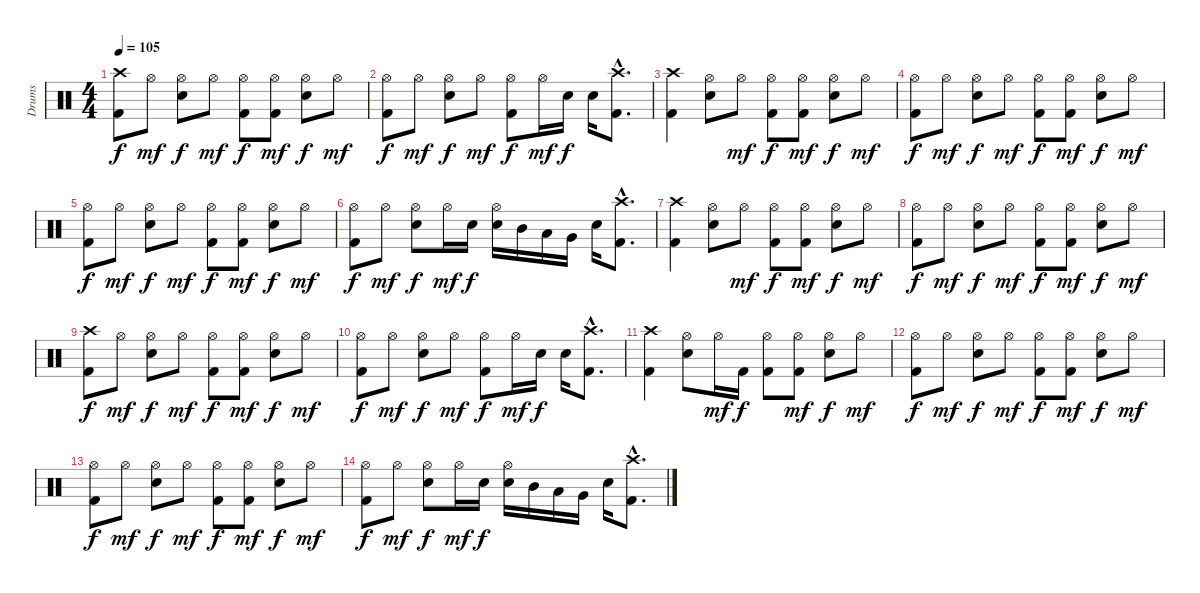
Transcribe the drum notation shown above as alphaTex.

\track ("Drums" "Drums") {instrument percussion}
\staff {score}
\articulation defaults
\ts (4 4)
\tempo 105
\clef neutral
\ks c
("Crash high (hit)" "Kick (hit) 2").8{dy f} "Hi-Hat (open)".8{dy mf} ("Hi-Hat (open)" "Electric Snare (hit)").8{dy f} "Hi-Hat (open)".8{dy mf} ("Hi-Hat (open)" "Kick (hit) 2").8{dy f} ("Hi-Hat (open)" "Kick (hit) 2").8{dy mf} ("Hi-Hat (open)" "Electric Snare (hit)").8{dy f} "Hi-Hat (open)".8{dy mf} |
("Hi-Hat (open)" "Kick (hit) 2").8{dy f} "Hi-Hat (open)".8{dy mf} ("Hi-Hat (open)" "Electric Snare (hit)").8{dy f} "Hi-Hat (open)".8{dy mf} ("Hi-Hat (open)" "Kick (hit) 2").8{dy f} "Hi-Hat (open)".16{dy mf} "Electric Snare (hit)".16{dy f} "Electric Snare (hit)".16 ("Crash high (hit)"{hac} "Kick (hit) 2"{hac}).8{d} |
("Crash high (hit)" "Kick (hit) 2").4 ("Hi-Hat (open)" "Electric Snare (hit)").8 "Hi-Hat (open)".8{dy mf} ("Hi-Hat (open)" "Kick (hit) 2").8{dy f} ("Hi-Hat (open)" "Kick (hit) 2").8{dy mf} ("Hi-Hat (open)" "Electric Snare (hit)").8{dy f} "Hi-Hat (open)".8{dy mf} |
("Hi-Hat (open)" "Kick (hit) 2").8{dy f} "Hi-Hat (open)".8{dy mf} ("Hi-Hat (open)" "Electric Snare (hit)").8{dy f} "Hi-Hat (open)".8{dy mf} ("Hi-Hat (open)" "Kick (hit) 2").8{dy f} ("Hi-Hat (open)" "Kick (hit) 2").8{dy mf} ("Hi-Hat (open)" "Electric Snare (hit)").8{dy f} "Hi-Hat (open)".8{dy mf} |
("Hi-Hat (open)" "Kick (hit) 2").8{dy f} "Hi-Hat (open)".8{dy mf} ("Hi-Hat (open)" "Electric Snare (hit)").8{dy f} "Hi-Hat (open)".8{dy mf} ("Hi-Hat (open)" "Kick (hit) 2").8{dy f} ("Hi-Hat (open)" "Kick (hit) 2").8{dy mf} ("Hi-Hat (open)" "Electric Snare (hit)").8{dy f} "Hi-Hat (open)".8{dy mf} |
("Hi-Hat (open)" "Kick (hit) 2").8{dy f} "Hi-Hat (open)".8{dy mf} ("Hi-Hat (open)" "Electric Snare (hit)").8{dy f} "Hi-Hat (open)".16{dy mf} "Electric Snare (hit)".16{dy f} ("Hi-Hat (open)" "Electric Snare (hit)").16 "Mid Tom (hit)".16 "Low Tom (hit)".16 "Very Low Tom (hit)".16 "Electric Snare (hit)".16 ("Crash high (hit)"{hac} "Kick (hit) 2"{hac}).8{d} |
("Crash high (hit)" "Kick (hit) 2").4{volume 7} ("Hi-Hat (open)" "Electric Snare (hit)").8 "Hi-Hat (open)".8{dy mf} ("Hi-Hat (open)" "Kick (hit) 2").8{dy f} ("Hi-Hat (open)" "Kick (hit) 2").8{dy mf} ("Hi-Hat (open)" "Electric Snare (hit)").8{dy f} "Hi-Hat (open)".8{dy mf} |
("Hi-Hat (open)" "Kick (hit) 2").8{dy f} "Hi-Hat (open)".8{dy mf} ("Hi-Hat (open)" "Electric Snare (hit)").8{dy f} "Hi-Hat (open)".8{dy mf} ("Hi-Hat (open)" "Kick (hit) 2").8{dy f} ("Hi-Hat (open)" "Kick (hit) 2").8{dy mf} ("Hi-Hat (open)" "Electric Snare (hit)").8{dy f} "Hi-Hat (open)".8{dy mf} |
("Crash high (hit)" "Kick (hit) 2").8{dy f} "Hi-Hat (open)".8{dy mf} ("Hi-Hat (open)" "Electric Snare (hit)").8{dy f} "Hi-Hat (open)".8{dy mf} ("Hi-Hat (open)" "Kick (hit) 2").8{dy f} ("Hi-Hat (open)" "Kick (hit) 2").8{dy mf} ("Hi-Hat (open)" "Electric Snare (hit)").8{dy f} "Hi-Hat (open)".8{dy mf} |
("Hi-Hat (open)" "Kick (hit) 2").8{dy f} "Hi-Hat (open)".8{dy mf} ("Hi-Hat (open)" "Electric Snare (hit)").8{dy f} "Hi-Hat (open)".8{dy mf} ("Hi-Hat (open)" "Kick (hit) 2").8{dy f} "Hi-Hat (open)".16{dy mf} "Electric Snare (hit)".16{dy f} "Electric Snare (hit)".16 ("Crash high (hit)"{hac} "Kick (hit) 2"{hac}).8{d} |
("Crash high (hit)" "Kick (hit) 2").4{volume 2} ("Hi-Hat (open)" "Electric Snare (hit)").8 "Hi-Hat (open)".16{dy mf} "Kick (hit) 2".16{dy f} ("Hi-Hat (open)" "Kick (hit) 2").8 ("Hi-Hat (open)" "Kick (hit) 2").8{dy mf} ("Hi-Hat (open)" "Electric Snare (hit)").8{dy f} "Hi-Hat (open)".8{dy mf} |
("Hi-Hat (open)" "Kick (hit) 2").8{dy f} "Hi-Hat (open)".8{dy mf} ("Hi-Hat (open)" "Electric Snare (hit)").8{dy f} "Hi-Hat (open)".8{dy mf} ("Hi-Hat (open)" "Kick (hit) 2").8{dy f} ("Hi-Hat (open)" "Kick (hit) 2").8{dy mf} ("Hi-Hat (open)" "Electric Snare (hit)").8{dy f} "Hi-Hat (open)".8{dy mf} |
("Hi-Hat (open)" "Kick (hit) 2").8{dy f} "Hi-Hat (open)".8{dy mf} ("Hi-Hat (open)" "Electric Snare (hit)").8{dy f} "Hi-Hat (open)".8{dy mf} ("Hi-Hat (open)" "Kick (hit) 2").8{dy f} ("Hi-Hat (open)" "Kick (hit) 2").8{dy mf} ("Hi-Hat (open)" "Electric Snare (hit)").8{dy f} "Hi-Hat (open)".8{dy mf} |
("Hi-Hat (open)" "Kick (hit) 2").8{dy f} "Hi-Hat (open)".8{dy mf} ("Hi-Hat (open)" "Electric Snare (hit)").8{dy f} "Hi-Hat (open)".16{dy mf} "Electric Snare (hit)".16{dy f} ("Hi-Hat (open)" "Electric Snare (hit)").16 "Mid Tom (hit)".16 "Low Tom (hit)".16 "Very Low Tom (hit)".16 "Electric Snare (hit)".16 ("Crash high (hit)"{hac} "Kick (hit) 2"{hac}).8{d}
